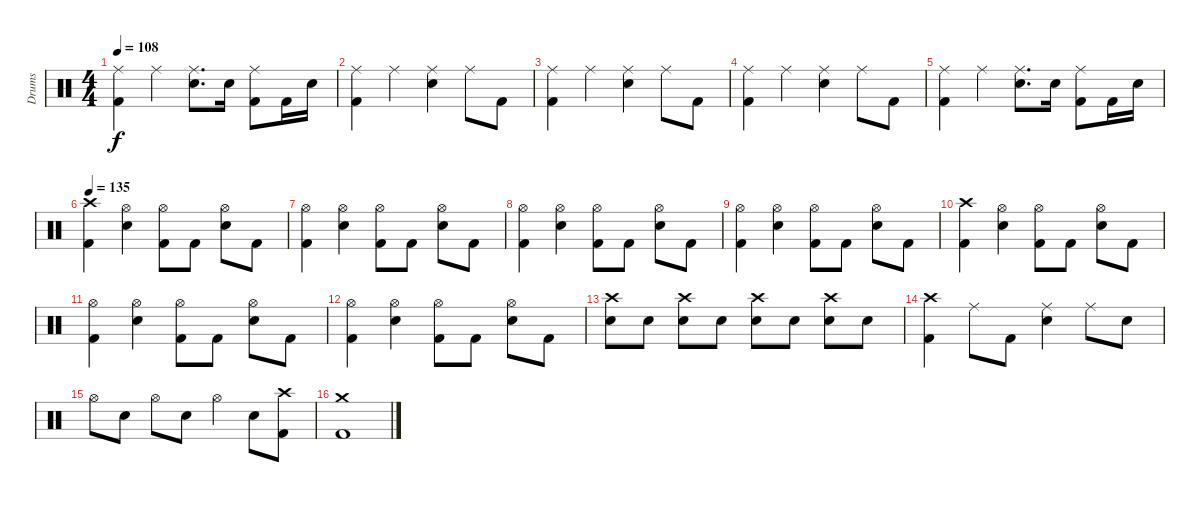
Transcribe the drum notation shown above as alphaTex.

\track ("Drums" "Drums") {instrument percussion}
\staff {score}
\articulation defaults
\ts (4 4)
\tempo 108
\clef neutral
\ks c
("Ride (middle)" "Kick (hit) 2").4{dy f} "Ride (middle)".4 ("Ride (middle)" "Electric Snare (hit)").8{d} "Electric Snare (hit)".16 ("Ride (middle)" "Kick (hit) 2").8 "Kick (hit) 2".16 "Electric Snare (hit)".16 |
("Ride (middle)" "Kick (hit) 2").4 "Ride (middle)".4 ("Ride (middle)" "Electric Snare (hit)").4 "Ride (middle)".8 "Kick (hit) 2".8 |
("Ride (middle)" "Kick (hit) 2").4 "Ride (middle)".4 ("Ride (middle)" "Electric Snare (hit)").4 "Ride (middle)".8 "Kick (hit) 2".8 |
("Ride (middle)" "Kick (hit) 2").4 "Ride (middle)".4 ("Ride (middle)" "Electric Snare (hit)").4 "Ride (middle)".8 "Kick (hit) 2".8 |
("Ride (middle)" "Kick (hit) 2").4 "Ride (middle)".4 ("Ride (middle)" "Electric Snare (hit)").8{d} "Electric Snare (hit)".16 ("Ride (middle)" "Kick (hit) 2").8 "Kick (hit) 2".16 "Electric Snare (hit)".16 |
\tempo 135
("Crash high (hit)" "Kick (hit) 2").4 ("Hi-Hat (open)" "Electric Snare (hit)").4 ("Hi-Hat (open)" "Kick (hit) 2").8 "Kick (hit) 2".8 ("Hi-Hat (open)" "Electric Snare (hit)").8 "Kick (hit) 2".8 |
("Hi-Hat (open)" "Kick (hit) 2").4 ("Hi-Hat (open)" "Electric Snare (hit)").4 ("Hi-Hat (open)" "Kick (hit) 2").8 "Kick (hit) 2".8 ("Hi-Hat (open)" "Electric Snare (hit)").8 "Kick (hit) 2".8 |
("Hi-Hat (open)" "Kick (hit) 2").4 ("Hi-Hat (open)" "Electric Snare (hit)").4 ("Hi-Hat (open)" "Kick (hit) 2").8 "Kick (hit) 2".8 ("Hi-Hat (open)" "Electric Snare (hit)").8 "Kick (hit) 2".8 |
("Hi-Hat (open)" "Kick (hit) 2").4 ("Hi-Hat (open)" "Electric Snare (hit)").4 ("Hi-Hat (open)" "Kick (hit) 2").8 "Kick (hit) 2".8 ("Hi-Hat (open)" "Electric Snare (hit)").8 "Kick (hit) 2".8 |
("Crash high (hit)" "Kick (hit) 2").4 ("Hi-Hat (open)" "Electric Snare (hit)").4 ("Hi-Hat (open)" "Kick (hit) 2").8 "Kick (hit) 2".8 ("Hi-Hat (open)" "Electric Snare (hit)").8 "Kick (hit) 2".8 |
("Hi-Hat (open)" "Kick (hit) 2").4 ("Hi-Hat (open)" "Electric Snare (hit)").4 ("Hi-Hat (open)" "Kick (hit) 2").8 "Kick (hit) 2".8 ("Hi-Hat (open)" "Electric Snare (hit)").8 "Kick (hit) 2".8 |
("Hi-Hat (open)" "Kick (hit) 2").4 ("Hi-Hat (open)" "Electric Snare (hit)").4 ("Hi-Hat (open)" "Kick (hit) 2").8 "Kick (hit) 2".8 ("Hi-Hat (open)" "Electric Snare (hit)").8 "Kick (hit) 2".8 |
("Crash high (hit)" "Electric Snare (hit)").8 "Electric Snare (hit)".8 ("Crash high (hit)" "Electric Snare (hit)").8 "Electric Snare (hit)".8 ("Crash high (hit)" "Electric Snare (hit)").8 "Electric Snare (hit)".8 ("Crash high (hit)" "Electric Snare (hit)").8 "Electric Snare (hit)".8 |
("Crash high (hit)" "Kick (hit) 2").4 "Ride (middle)".8 "Kick (hit) 2".8 ("Ride (middle)" "Electric Snare (hit)").4 "Ride (middle)".8 "Electric Snare (hit)".8 |
"Hi-Hat (open)".8 "Electric Snare (hit)".8 "Hi-Hat (open)".8 "Electric Snare (hit)".8 "Hi-Hat (open)".4 "Electric Snare (hit)".8 ("Crash high (hit)" "Kick (hit) 2").8 |
("Kick (hit) 2" "Crash medium (hit)").1
